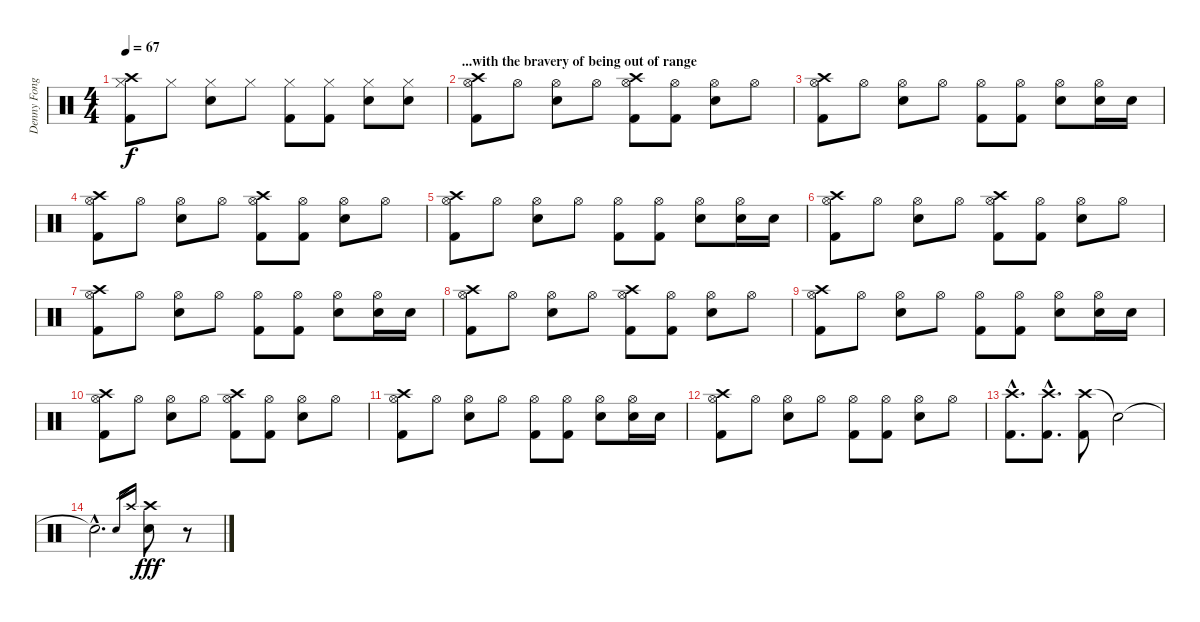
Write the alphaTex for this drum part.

\track ("Denny Fongheiser - Drums" "Denny Fong") {instrument percussion}
\staff {score}
\articulation defaults
\ts (4 4)
\tempo 67
\clef neutral
\ks c
("Crash high (hit)" "Hi-Hat (closed)" "Kick (hit) 2").8{dy f} "Hi-Hat (closed)".8 ("Hi-Hat (closed)" "Snare (hit) 2").8 "Hi-Hat (closed)".8 ("Hi-Hat (closed)" "Kick (hit) 2").8 ("Hi-Hat (closed)" "Kick (hit) 2").8 ("Hi-Hat (closed)" "Snare (hit) 2").8 ("Hi-Hat (closed)" "Snare (hit) 2").8 |
\section ("" "...with the bravery of being out of range")
("Hi-Hat (open)" "Kick (hit) 2" "Crash high (hit)").8 "Hi-Hat (open)".8 ("Hi-Hat (open)" "Snare (hit) 2").8 "Hi-Hat (open)".8 ("Hi-Hat (open)" "Kick (hit) 2" "Crash high (hit)").8 ("Hi-Hat (open)" "Kick (hit) 2").8 ("Hi-Hat (open)" "Snare (hit) 2").8 "Hi-Hat (open)".8 |
("Hi-Hat (open)" "Kick (hit) 2" "Crash high (hit)").8 "Hi-Hat (open)".8 ("Hi-Hat (open)" "Snare (hit) 2").8 "Hi-Hat (open)".8 ("Hi-Hat (open)" "Kick (hit) 2").8 ("Hi-Hat (open)" "Kick (hit) 2").8 ("Hi-Hat (open)" "Snare (hit) 2").8 ("Hi-Hat (open)" "Snare (hit) 2").16 "Snare (hit) 2".16 |
("Hi-Hat (open)" "Kick (hit) 2" "Crash high (hit)").8 "Hi-Hat (open)".8 ("Hi-Hat (open)" "Snare (hit) 2").8 "Hi-Hat (open)".8 ("Hi-Hat (open)" "Kick (hit) 2" "Crash high (hit)").8 ("Hi-Hat (open)" "Kick (hit) 2").8 ("Hi-Hat (open)" "Snare (hit) 2").8 "Hi-Hat (open)".8 |
("Hi-Hat (open)" "Kick (hit) 2" "Crash high (hit)").8 "Hi-Hat (open)".8 ("Hi-Hat (open)" "Snare (hit) 2").8 "Hi-Hat (open)".8 ("Hi-Hat (open)" "Kick (hit) 2").8 ("Hi-Hat (open)" "Kick (hit) 2").8 ("Hi-Hat (open)" "Snare (hit) 2").8 ("Hi-Hat (open)" "Snare (hit) 2").16 "Snare (hit) 2".16 |
("Hi-Hat (open)" "Kick (hit) 2" "Crash high (hit)").8 "Hi-Hat (open)".8 ("Hi-Hat (open)" "Snare (hit) 2").8 "Hi-Hat (open)".8 ("Hi-Hat (open)" "Kick (hit) 2" "Crash high (hit)").8 ("Hi-Hat (open)" "Kick (hit) 2").8 ("Hi-Hat (open)" "Snare (hit) 2").8 "Hi-Hat (open)".8 |
("Hi-Hat (open)" "Kick (hit) 2" "Crash high (hit)").8 "Hi-Hat (open)".8 ("Hi-Hat (open)" "Snare (hit) 2").8 "Hi-Hat (open)".8 ("Hi-Hat (open)" "Kick (hit) 2").8 ("Hi-Hat (open)" "Kick (hit) 2").8 ("Hi-Hat (open)" "Snare (hit) 2").8 ("Hi-Hat (open)" "Snare (hit) 2").16 "Snare (hit) 2".16 |
("Hi-Hat (open)" "Kick (hit) 2" "Crash high (hit)").8 "Hi-Hat (open)".8 ("Hi-Hat (open)" "Snare (hit) 2").8 "Hi-Hat (open)".8 ("Hi-Hat (open)" "Kick (hit) 2" "Crash high (hit)").8 ("Hi-Hat (open)" "Kick (hit) 2").8 ("Hi-Hat (open)" "Snare (hit) 2").8 "Hi-Hat (open)".8 |
("Hi-Hat (open)" "Kick (hit) 2" "Crash high (hit)").8 "Hi-Hat (open)".8 ("Hi-Hat (open)" "Snare (hit) 2").8 "Hi-Hat (open)".8 ("Hi-Hat (open)" "Kick (hit) 2").8 ("Hi-Hat (open)" "Kick (hit) 2").8 ("Hi-Hat (open)" "Snare (hit) 2").8 ("Hi-Hat (open)" "Snare (hit) 2").16 "Snare (hit) 2".16 |
("Hi-Hat (open)" "Kick (hit) 2" "Crash high (hit)").8 "Hi-Hat (open)".8 ("Hi-Hat (open)" "Snare (hit) 2").8 "Hi-Hat (open)".8 ("Hi-Hat (open)" "Kick (hit) 2" "Crash high (hit)").8 ("Hi-Hat (open)" "Kick (hit) 2").8 ("Hi-Hat (open)" "Snare (hit) 2").8 "Hi-Hat (open)".8 |
("Hi-Hat (open)" "Kick (hit) 2" "Crash high (hit)").8 "Hi-Hat (open)".8 ("Hi-Hat (open)" "Snare (hit) 2").8 "Hi-Hat (open)".8 ("Hi-Hat (open)" "Kick (hit) 2").8 ("Hi-Hat (open)" "Kick (hit) 2").8 ("Hi-Hat (open)" "Snare (hit) 2").8 ("Hi-Hat (open)" "Snare (hit) 2").16 "Snare (hit) 2".16 |
("Hi-Hat (open)" "Kick (hit) 2" "Crash high (hit)").8 "Hi-Hat (open)".8 ("Hi-Hat (open)" "Snare (hit) 2").8 "Hi-Hat (open)".8 ("Hi-Hat (open)" "Kick (hit) 2").8 ("Hi-Hat (open)" "Kick (hit) 2").8 ("Hi-Hat (open)" "Snare (hit) 2").8 "Hi-Hat (open)".8 |
("Crash high (hit)"{hac} "Kick (hit) 2"{hac}).8{d} ("Crash high (hit)"{hac} "Kick (hit) 2"{hac}).8{d} ("Crash high (hit)" "Kick (hit) 2").8 "Snare (hit)"{t}.2 |
"Snare (hit)"{hac t}.2{d} "Snare (hit) 2".16{gr} "Crash high (hit)".16{gr} ("Snare (hit) 2" "Crash high (hit)").8{dy fff} r.8
